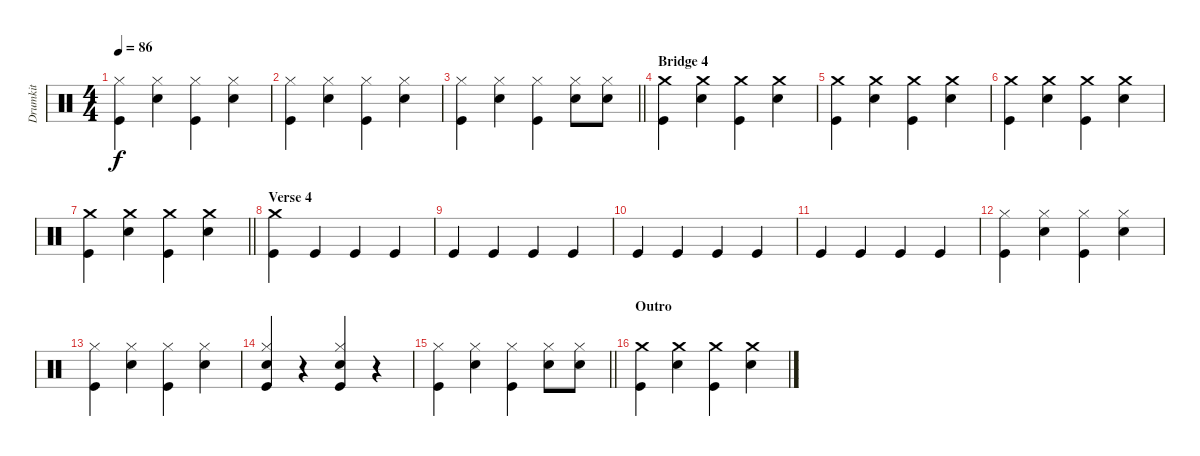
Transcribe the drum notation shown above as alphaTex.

\track ("Drumkit" "Drumkit") {instrument percussion}
\staff {score}
\articulation defaults
\ts (4 4)
\tempo 86
\clef neutral
\ks c
("Kick (hit)" "Hi-Hat (closed)").4{dy f} ("Snare (hit) 2" "Hi-Hat (closed)").4 ("Hi-Hat (closed)" "Kick (hit)").4 ("Snare (hit) 2" "Hi-Hat (closed)").4 |
("Kick (hit)" "Hi-Hat (closed)").4 ("Snare (hit) 2" "Hi-Hat (closed)").4 ("Hi-Hat (closed)" "Kick (hit)").4 ("Snare (hit) 2" "Hi-Hat (closed)").4 |
\barLineRight lightlight
("Kick (hit)" "Hi-Hat (closed)").4 ("Snare (hit) 2" "Hi-Hat (closed)").4 ("Hi-Hat (closed)" "Kick (hit)").4 ("Snare (hit) 2" "Hi-Hat (closed)").8 ("Snare (hit) 2" "Hi-Hat (closed)").8 |
\section ("" "Bridge 4")
("Kick (hit)" "Crash medium (hit)").4 ("Snare (hit) 2" "Crash medium (hit)").4 ("Kick (hit)" "Crash medium (hit)").4 ("Snare (hit) 2" "Crash medium (hit)").4 |
("Kick (hit)" "Crash medium (hit)").4 ("Snare (hit) 2" "Crash medium (hit)").4 ("Kick (hit)" "Crash medium (hit)").4 ("Snare (hit) 2" "Crash medium (hit)").4 |
("Kick (hit)" "Crash medium (hit)").4 ("Snare (hit) 2" "Crash medium (hit)").4 ("Kick (hit)" "Crash medium (hit)").4 ("Snare (hit) 2" "Crash medium (hit)").4 |
\barLineRight lightlight
("Kick (hit)" "Crash medium (hit)").4 ("Snare (hit) 2" "Crash medium (hit)").4 ("Kick (hit)" "Crash medium (hit)").4 ("Snare (hit) 2" "Crash medium (hit)").4 |
\section ("" "Verse 4")
("Kick (hit)" "Crash medium (hit)").4 "Kick (hit)".4 "Kick (hit)".4 "Kick (hit)".4 |
"Kick (hit)".4 "Kick (hit)".4 "Kick (hit)".4 "Kick (hit)".4 |
"Kick (hit)".4 "Kick (hit)".4 "Kick (hit)".4 "Kick (hit)".4 |
"Kick (hit)".4 "Kick (hit)".4 "Kick (hit)".4 "Kick (hit)".4 |
("Kick (hit)" "Hi-Hat (closed)").4 ("Snare (hit) 2" "Hi-Hat (closed)").4 ("Hi-Hat (closed)" "Kick (hit)").4 ("Snare (hit) 2" "Hi-Hat (closed)").4 |
("Kick (hit)" "Hi-Hat (closed)").4 ("Snare (hit) 2" "Hi-Hat (closed)").4 ("Hi-Hat (closed)" "Kick (hit)").4 ("Snare (hit) 2" "Hi-Hat (closed)").4 |
("Kick (hit)" "Hi-Hat (closed)" "Snare (hit) 2").4 r.4 ("Hi-Hat (closed)" "Kick (hit)" "Snare (hit) 2").4 r.4 |
\barLineRight lightlight
("Kick (hit)" "Hi-Hat (closed)").4 ("Snare (hit) 2" "Hi-Hat (closed)").4 ("Kick (hit)" "Hi-Hat (closed)").4 ("Snare (hit) 2" "Hi-Hat (closed)").8 ("Snare (hit) 2" "Hi-Hat (closed)").8 |
\section ("" "Outro")
("Kick (hit)" "Crash medium (hit)").4 ("Snare (hit) 2" "Crash medium (hit)").4 ("Kick (hit)" "Crash medium (hit)").4 ("Snare (hit) 2" "Crash medium (hit)").4
